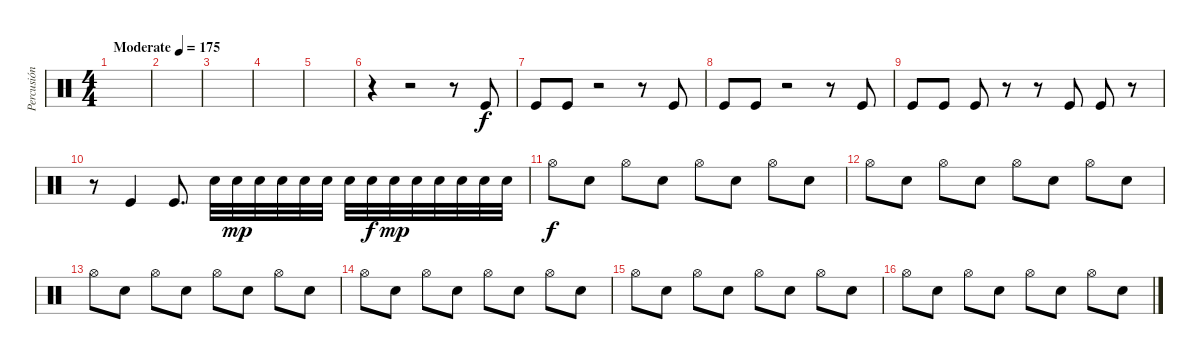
\track ("Percusión" "Percusión") {instrument percussion}
\staff {score}
\articulation defaults
\ts (4 4)
\tempo (175 "Moderate")
\clef neutral
\ks c
|
|
|
|
|
r.4 r.2 r.8 "Kick (hit)".8 |
"Kick (hit)".8 "Kick (hit)".8 r.2 r.8 "Kick (hit)".8 |
"Kick (hit)".8 "Kick (hit)".8 r.2 r.8 "Kick (hit)".8 |
"Kick (hit)".8 "Kick (hit)".8 "Kick (hit)".8 r.8 r.8 "Kick (hit)".8 "Kick (hit)".8 r.8 |
r.8 "Kick (hit)".4 "Kick (hit)".8{d} "Snare (hit) 2".32 "Snare (hit) 2".32{dy mp} "Snare (hit) 2".32 "Snare (hit) 2".32 "Snare (hit) 2".32 "Snare (hit) 2".32 "Snare (hit) 2".32 "Snare (hit) 2".32{dy f} "Snare (hit) 2".32{dy mp} "Snare (hit) 2".32 "Snare (hit) 2".32 "Snare (hit) 2".32 "Snare (hit) 2".32 "Snare (hit) 2".32 |
"Hi-Hat (open)".8{dy f} "Snare (hit) 2".8 "Hi-Hat (open)".8 "Snare (hit) 2".8 "Hi-Hat (open)".8 "Snare (hit) 2".8 "Hi-Hat (open)".8 "Snare (hit) 2".8 |
"Hi-Hat (open)".8 "Snare (hit) 2".8 "Hi-Hat (open)".8 "Snare (hit) 2".8 "Hi-Hat (open)".8 "Snare (hit) 2".8 "Hi-Hat (open)".8 "Snare (hit) 2".8 |
"Hi-Hat (open)".8 "Snare (hit) 2".8 "Hi-Hat (open)".8 "Snare (hit) 2".8 "Hi-Hat (open)".8 "Snare (hit) 2".8 "Hi-Hat (open)".8 "Snare (hit) 2".8 |
"Hi-Hat (open)".8 "Snare (hit) 2".8 "Hi-Hat (open)".8 "Snare (hit) 2".8 "Hi-Hat (open)".8 "Snare (hit) 2".8 "Hi-Hat (open)".8 "Snare (hit) 2".8 |
"Hi-Hat (open)".8 "Snare (hit) 2".8 "Hi-Hat (open)".8 "Snare (hit) 2".8 "Hi-Hat (open)".8 "Snare (hit) 2".8 "Hi-Hat (open)".8 "Snare (hit) 2".8 |
"Hi-Hat (open)".8 "Snare (hit) 2".8 "Hi-Hat (open)".8 "Snare (hit) 2".8 "Hi-Hat (open)".8 "Snare (hit) 2".8 "Hi-Hat (open)".8 "Snare (hit) 2".8
